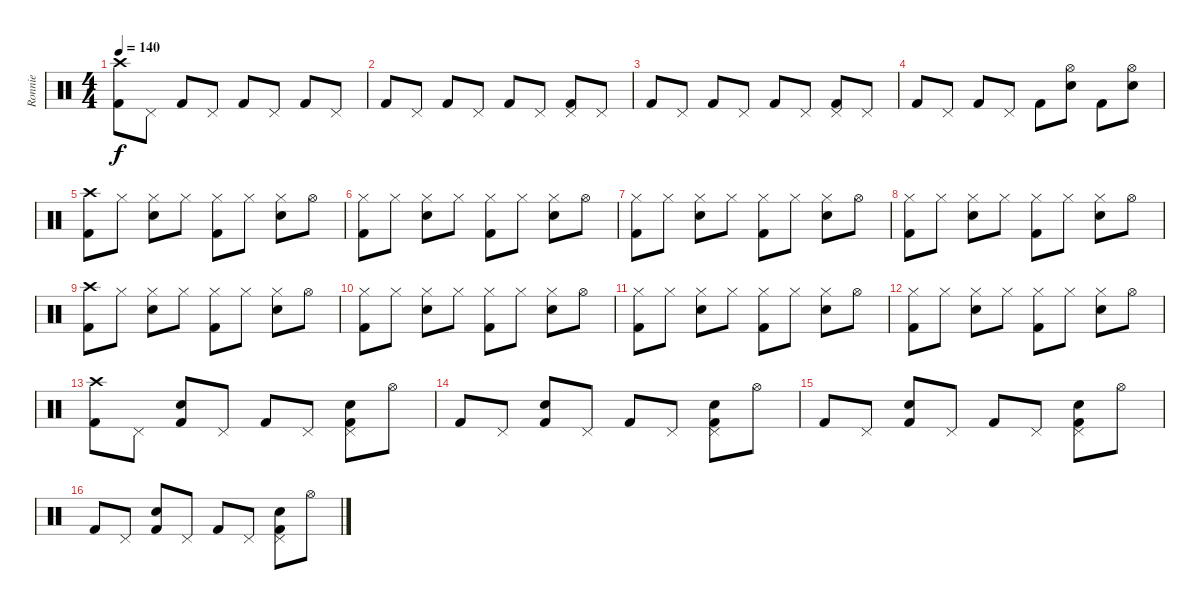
\track ("Ronnie" "Ronnie") {instrument percussion}
\staff {score}
\articulation defaults
\ts (4 4)
\tempo 140
\clef neutral
\ks c
("Kick (hit) 2" "Crash high (hit)").8{dy f} "Pedal Hi-Hat (hit)".8 "Kick (hit) 2".8 "Pedal Hi-Hat (hit)".8 "Kick (hit) 2".8 "Pedal Hi-Hat (hit)".8 "Kick (hit) 2".8 "Pedal Hi-Hat (hit)".8 |
"Kick (hit) 2".8 "Pedal Hi-Hat (hit)".8 "Kick (hit) 2".8 "Pedal Hi-Hat (hit)".8 "Kick (hit) 2".8 "Pedal Hi-Hat (hit)".8 ("Pedal Hi-Hat (hit)" "Kick (hit) 2").8 "Pedal Hi-Hat (hit)".8 |
"Kick (hit) 2".8 "Pedal Hi-Hat (hit)".8 "Kick (hit) 2".8 "Pedal Hi-Hat (hit)".8 "Kick (hit) 2".8 "Pedal Hi-Hat (hit)".8 ("Pedal Hi-Hat (hit)" "Kick (hit) 2").8 "Pedal Hi-Hat (hit)".8 |
"Kick (hit) 2".8 "Pedal Hi-Hat (hit)".8 "Kick (hit) 2".8 "Pedal Hi-Hat (hit)".8 "Kick (hit) 2".8 ("Hi-Hat (open)" "Electric Snare (hit)").8 "Kick (hit) 2".8 ("Hi-Hat (open)" "Electric Snare (hit)").8 |
("Crash high (hit)" "Kick (hit) 2").8 "Hi-Hat (closed)".8 ("Hi-Hat (closed)" "Electric Snare (hit)").8 "Hi-Hat (closed)".8 ("Hi-Hat (closed)" "Kick (hit) 2").8 "Hi-Hat (closed)".8 ("Hi-Hat (closed)" "Electric Snare (hit)").8 "Hi-Hat (open)".8 |
("Hi-Hat (closed)" "Kick (hit) 2").8 "Hi-Hat (closed)".8 ("Hi-Hat (closed)" "Electric Snare (hit)").8 "Hi-Hat (closed)".8 ("Hi-Hat (closed)" "Kick (hit) 2").8 "Hi-Hat (closed)".8 ("Hi-Hat (closed)" "Electric Snare (hit)").8 "Hi-Hat (open)".8 |
("Hi-Hat (closed)" "Kick (hit) 2").8 "Hi-Hat (closed)".8 ("Hi-Hat (closed)" "Electric Snare (hit)").8 "Hi-Hat (closed)".8 ("Hi-Hat (closed)" "Kick (hit) 2").8 "Hi-Hat (closed)".8 ("Hi-Hat (closed)" "Electric Snare (hit)").8 "Hi-Hat (open)".8 |
("Hi-Hat (closed)" "Kick (hit) 2").8 "Hi-Hat (closed)".8 ("Hi-Hat (closed)" "Electric Snare (hit)").8 "Hi-Hat (closed)".8 ("Hi-Hat (closed)" "Kick (hit) 2").8 "Hi-Hat (closed)".8 ("Hi-Hat (closed)" "Electric Snare (hit)").8 "Hi-Hat (open)".8 |
("Crash high (hit)" "Kick (hit) 2").8 "Hi-Hat (closed)".8 ("Hi-Hat (closed)" "Electric Snare (hit)").8 "Hi-Hat (closed)".8 ("Hi-Hat (closed)" "Kick (hit) 2").8 "Hi-Hat (closed)".8 ("Hi-Hat (closed)" "Electric Snare (hit)").8 "Hi-Hat (open)".8 |
("Hi-Hat (closed)" "Kick (hit) 2").8 "Hi-Hat (closed)".8 ("Hi-Hat (closed)" "Electric Snare (hit)").8 "Hi-Hat (closed)".8 ("Hi-Hat (closed)" "Kick (hit) 2").8 "Hi-Hat (closed)".8 ("Hi-Hat (closed)" "Electric Snare (hit)").8 "Hi-Hat (open)".8 |
("Hi-Hat (closed)" "Kick (hit) 2").8 "Hi-Hat (closed)".8 ("Hi-Hat (closed)" "Electric Snare (hit)").8 "Hi-Hat (closed)".8 ("Hi-Hat (closed)" "Kick (hit) 2").8 "Hi-Hat (closed)".8 ("Hi-Hat (closed)" "Electric Snare (hit)").8 "Hi-Hat (open)".8 |
("Hi-Hat (closed)" "Kick (hit) 2").8 "Hi-Hat (closed)".8 ("Hi-Hat (closed)" "Electric Snare (hit)").8 "Hi-Hat (closed)".8 ("Hi-Hat (closed)" "Kick (hit) 2").8 "Hi-Hat (closed)".8 ("Hi-Hat (closed)" "Electric Snare (hit)").8 "Hi-Hat (open)".8 |
("Crash high (hit)" "Kick (hit) 2").8 "Pedal Hi-Hat (hit)".8 ("Kick (hit) 2" "Electric Snare (hit)").8 "Pedal Hi-Hat (hit)".8 "Kick (hit) 2".8 "Pedal Hi-Hat (hit)".8 ("Pedal Hi-Hat (hit)" "Kick (hit) 2" "Electric Snare (hit)").8 "Hi-Hat (open)".8 |
"Kick (hit) 2".8 "Pedal Hi-Hat (hit)".8 ("Kick (hit) 2" "Electric Snare (hit)").8 "Pedal Hi-Hat (hit)".8 "Kick (hit) 2".8 "Pedal Hi-Hat (hit)".8 ("Pedal Hi-Hat (hit)" "Kick (hit) 2" "Electric Snare (hit)").8 "Hi-Hat (open)".8 |
"Kick (hit) 2".8 "Pedal Hi-Hat (hit)".8 ("Kick (hit) 2" "Electric Snare (hit)").8 "Pedal Hi-Hat (hit)".8 "Kick (hit) 2".8 "Pedal Hi-Hat (hit)".8 ("Pedal Hi-Hat (hit)" "Kick (hit) 2" "Electric Snare (hit)").8 "Hi-Hat (open)".8 |
"Kick (hit) 2".8 "Pedal Hi-Hat (hit)".8 ("Kick (hit) 2" "Electric Snare (hit)").8 "Pedal Hi-Hat (hit)".8 "Kick (hit) 2".8 "Pedal Hi-Hat (hit)".8 ("Pedal Hi-Hat (hit)" "Kick (hit) 2" "Electric Snare (hit)").8 "Hi-Hat (open)".8
